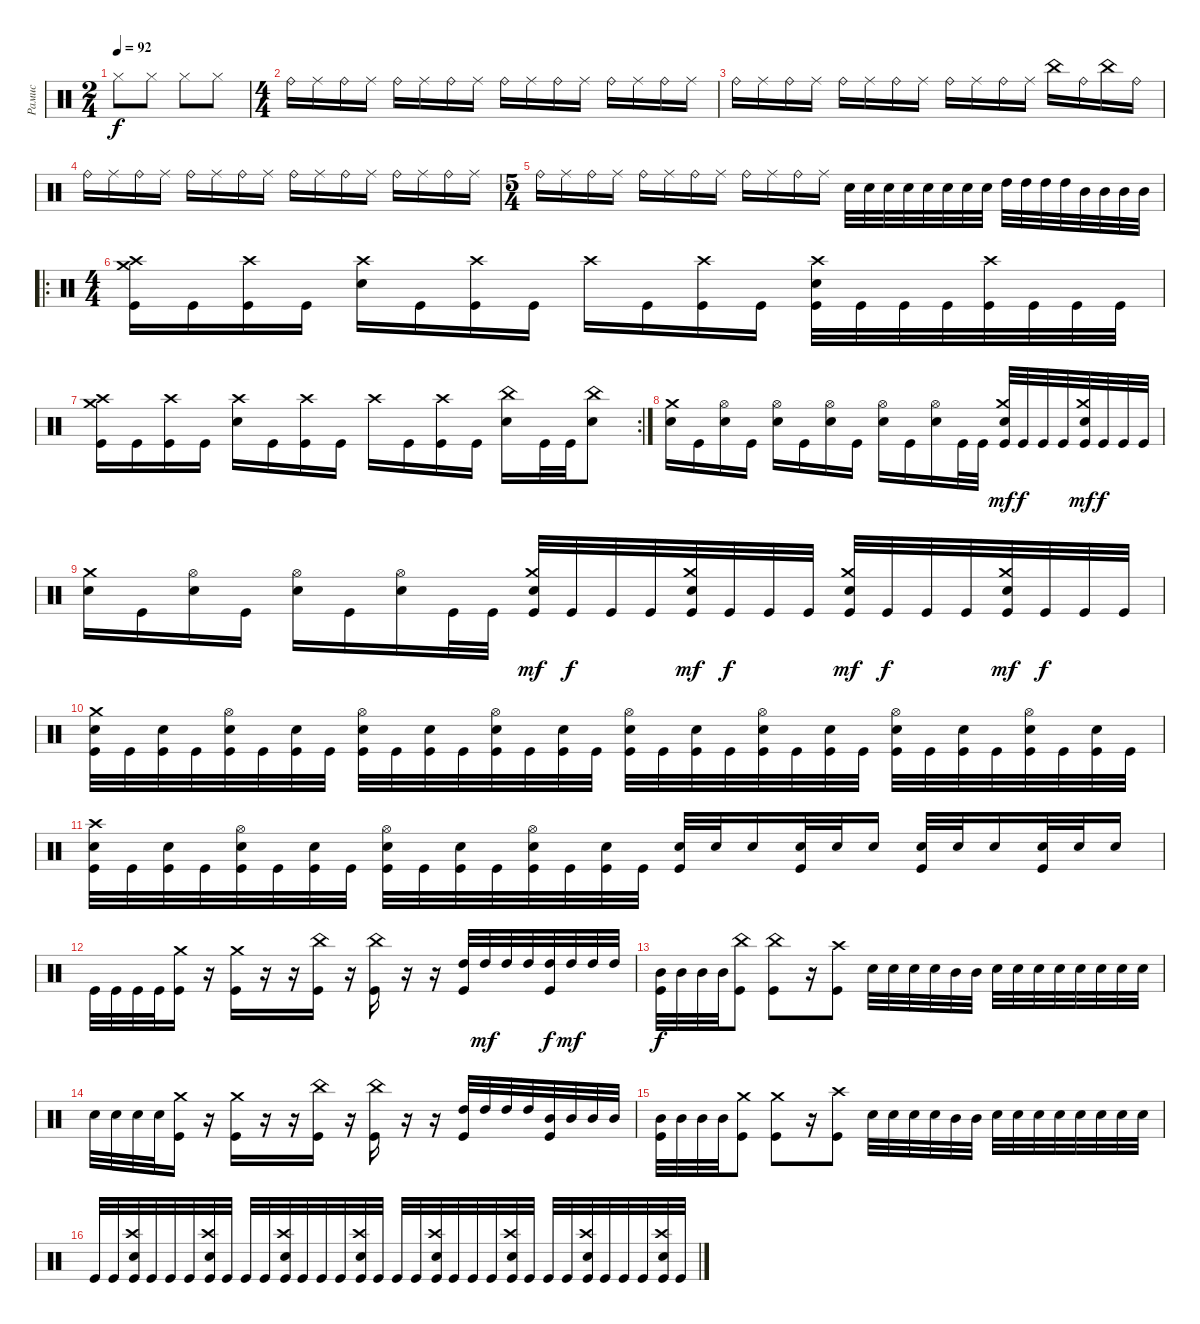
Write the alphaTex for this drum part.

\track ("Рамис" "Рамис") {instrument percussion}
\staff {score}
\articulation defaults
\ts (2 4)
\tempo 92
\clef neutral
\ks c "Hi-Hat (closed)".8{dy f} "Hi-Hat (closed)".8 "Hi-Hat (closed)".8 "Hi-Hat (closed)".8
|
\ts (4 4)
"Ride (bell)".16 "Ride (middle)".16 "Ride (bell)".16 "Ride (middle)".16 "Ride (bell)".16 "Ride (middle)".16 "Ride (bell)".16 "Ride (middle)".16 "Ride (bell)".16 "Ride (middle)".16 "Ride (bell)".16 "Ride (middle)".16 "Ride (bell)".16 "Ride (middle)".16 "Ride (bell)".16 "Ride (middle)".16 |
"Ride (bell)".16 "Ride (middle)".16 "Ride (bell)".16 "Ride (middle)".16 "Ride (bell)".16 "Ride (middle)".16 "Ride (bell)".16 "Ride (middle)".16 "Ride (bell)".16 "Ride (middle)".16 "Ride (bell)".16 "Ride (middle)".16 "China (hit)".16 "Ride (bell)".16 "China (hit)".16 "Ride (bell)".16 |
"Ride (bell)".16 "Ride (middle)".16 "Ride (bell)".16 "Ride (middle)".16 "Ride (bell)".16 "Ride (middle)".16 "Ride (bell)".16 "Ride (middle)".16 "Ride (bell)".16 "Ride (middle)".16 "Ride (bell)".16 "Ride (middle)".16 "Ride (bell)".16 "Ride (middle)".16 "Ride (bell)".16 "Ride (middle)".16 |
\ts (5 4)
"Ride (bell)".16 "Ride (middle)".16 "Ride (bell)".16 "Ride (middle)".16 "Ride (bell)".16 "Ride (middle)".16 "Ride (bell)".16 "Ride (middle)".16 "Ride (bell)".16 "Ride (middle)".16 "Ride (bell)".16 "Ride (middle)".16 "Electric Snare (hit)".32 "Electric Snare (hit)".32 "Electric Snare (hit)".32 "Electric Snare (hit)".32 "Electric Snare (hit)".32 "Electric Snare (hit)".32 "Electric Snare (hit)".32 "Electric Snare (hit)".32 "High Tom (hit)".32 "High Tom (hit)".32 "High Tom (hit)".32 "High Tom (hit)".32 "Mid Tom (hit)".32 "Mid Tom (hit)".32 "Mid Tom (hit)".32 "Mid Tom (hit)".32 |
\ro
\ts (4 4)
("Crash high (hit)" "Crash medium (hit)" "Kick (hit)").16 "Kick (hit)".16 ("Crash high (hit)" "Kick (hit)").16 "Kick (hit)".16 ("Crash high (hit)" "Electric Snare (hit)").16 "Kick (hit)".16 ("Crash high (hit)" "Kick (hit)").16 "Kick (hit)".16 "Crash high (hit)".16 "Kick (hit)".16 ("Crash high (hit)" "Kick (hit)").16 "Kick (hit)".16 ("Crash high (hit)" "Electric Snare (hit)" "Kick (hit)").32 "Kick (hit)".32 "Kick (hit)".32 "Kick (hit)".32 ("Crash high (hit)" "Kick (hit)").32 "Kick (hit)".32 "Kick (hit)".32 "Kick (hit)".32 |
\rc 2
("Crash medium (hit)" "Crash high (hit)" "Kick (hit)").16 "Kick (hit)".16 ("Crash high (hit)" "Kick (hit)").16 "Kick (hit)".16 ("Crash high (hit)" "Electric Snare (hit)").16 "Kick (hit)".16 ("Crash high (hit)" "Kick (hit)").16 "Kick (hit)".16 "Crash high (hit)".16 "Kick (hit)".16 ("Crash high (hit)" "Kick (hit)").16 "Kick (hit)".16 ("China (hit)" "Electric Snare (hit)").16 "Kick (hit)".32 "Kick (hit)".32 ("China (hit)" "Electric Snare (hit)").8 |
("Crash medium (hit)" "Electric Snare (hit)").16 "Kick (hit)".16 ("Hi-Hat (open)" "Electric Snare (hit)").16 "Kick (hit)".16 ("Hi-Hat (open)" "Electric Snare (hit)").16 "Kick (hit)".16 ("Hi-Hat (open)" "Electric Snare (hit)").16 "Kick (hit)".16 ("Hi-Hat (open)" "Electric Snare (hit)").16 "Kick (hit)".16 ("Hi-Hat (open)" "Electric Snare (hit)").16 "Kick (hit)".32 "Kick (hit)".32 ("Crash medium (hit)" "Electric Snare (hit)" "Kick (hit)").32{dy mf} "Kick (hit)".32{dy f} "Kick (hit)".32 "Kick (hit)".32 ("Crash medium (hit)" "Electric Snare (hit)" "Kick (hit)").32{dy mf} "Kick (hit)".32{dy f} "Kick (hit)".32 "Kick (hit)".32 |
("Crash medium (hit)" "Electric Snare (hit)").16 "Kick (hit)".16 ("Hi-Hat (open)" "Electric Snare (hit)").16 "Kick (hit)".16 ("Hi-Hat (open)" "Electric Snare (hit)").16 "Kick (hit)".16 ("Hi-Hat (open)" "Electric Snare (hit)").16 "Kick (hit)".32 "Kick (hit)".32 ("Crash medium (hit)" "Electric Snare (hit)" "Kick (hit)").32{dy mf} "Kick (hit)".32{dy f} "Kick (hit)".32 "Kick (hit)".32 ("Crash medium (hit)" "Electric Snare (hit)" "Kick (hit)").32{dy mf} "Kick (hit)".32{dy f} "Kick (hit)".32 "Kick (hit)".32 ("Crash medium (hit)" "Electric Snare (hit)" "Kick (hit)").32{dy mf} "Kick (hit)".32{dy f} "Kick (hit)".32 "Kick (hit)".32 ("Crash medium (hit)" "Electric Snare (hit)" "Kick (hit)").32{dy mf} "Kick (hit)".32{dy f} "Kick (hit)".32 "Kick (hit)".32 |
("Crash medium (hit)" "Electric Snare (hit)" "Kick (hit)").32 "Kick (hit)".32 ("Electric Snare (hit)" "Kick (hit)").32 "Kick (hit)".32 ("Hi-Hat (open)" "Electric Snare (hit)" "Kick (hit)").32 "Kick (hit)".32 ("Electric Snare (hit)" "Kick (hit)").32 "Kick (hit)".32 ("Hi-Hat (open)" "Electric Snare (hit)" "Kick (hit)").32 "Kick (hit)".32 ("Electric Snare (hit)" "Kick (hit)").32 "Kick (hit)".32 ("Hi-Hat (open)" "Electric Snare (hit)" "Kick (hit)").32 "Kick (hit)".32 ("Electric Snare (hit)" "Kick (hit)").32 "Kick (hit)".32 ("Hi-Hat (open)" "Electric Snare (hit)" "Kick (hit)").32 "Kick (hit)".32 ("Electric Snare (hit)" "Kick (hit)").32 "Kick (hit)".32 ("Hi-Hat (open)" "Electric Snare (hit)" "Kick (hit)").32 "Kick (hit)".32 ("Electric Snare (hit)" "Kick (hit)").32 "Kick (hit)".32 ("Hi-Hat (open)" "Electric Snare (hit)" "Kick (hit)").32 "Kick (hit)".32 ("Electric Snare (hit)" "Kick (hit)").32 "Kick (hit)".32 ("Hi-Hat (open)" "Electric Snare (hit)" "Kick (hit)").32 "Kick (hit)".32 ("Electric Snare (hit)" "Kick (hit)").32 "Kick (hit)".32 |
("Crash high (hit)" "Electric Snare (hit)" "Kick (hit)").32 "Kick (hit)".32 ("Electric Snare (hit)" "Kick (hit)").32 "Kick (hit)".32 ("Hi-Hat (open)" "Electric Snare (hit)" "Kick (hit)").32 "Kick (hit)".32 ("Electric Snare (hit)" "Kick (hit)").32 "Kick (hit)".32 ("Hi-Hat (open)" "Electric Snare (hit)" "Kick (hit)").32 "Kick (hit)".32 ("Electric Snare (hit)" "Kick (hit)").32 "Kick (hit)".32 ("Hi-Hat (open)" "Electric Snare (hit)" "Kick (hit)").32 "Kick (hit)".32 ("Electric Snare (hit)" "Kick (hit)").32 "Kick (hit)".32 ("Kick (hit)" "Electric Snare (hit)").32 "Electric Snare (hit)".32 "Electric Snare (hit)".16 ("Kick (hit)" "Electric Snare (hit)").32 "Electric Snare (hit)".32 "Electric Snare (hit)".16 ("Kick (hit)" "Electric Snare (hit)").32 "Electric Snare (hit)".32 "Electric Snare (hit)".16 ("Kick (hit)" "Electric Snare (hit)").32 "Electric Snare (hit)".32 "Electric Snare (hit)".16 |
"Kick (hit)".32 "Kick (hit)".32 "Kick (hit)".32 "Kick (hit)".32 ("Crash medium (hit)" "Kick (hit)").16 r.16 ("Crash medium (hit)" "Kick (hit)").16 r.16 r.16 ("China (hit)" "Kick (hit)").16 r.16 ("China (hit)" "Kick (hit)").16 r.16 r.16 ("Kick (hit)" "High Tom (hit)").32 "High Tom (hit)".32{dy mf} "High Tom (hit)".32 "High Tom (hit)".32 ("Kick (hit)" "High Tom (hit)").32{dy f} "High Tom (hit)".32{dy mf} "High Tom (hit)".32 "High Tom (hit)".32 |
("Mid Tom (hit)" "Kick (hit)").32{dy f} "Mid Tom (hit)".32 "Mid Tom (hit)".32 "Mid Tom (hit)".32 ("China (hit)" "Kick (hit)").8 ("China (hit)" "Kick (hit)").8 r.16 ("Crash high (hit)" "Kick (hit)").8 "Electric Snare (hit)".32 "Electric Snare (hit)".32 "Electric Snare (hit)".32 "Electric Snare (hit)".32 "Mid Tom (hit)".32 "Mid Tom (hit)".32 "Electric Snare (hit)".32 "Electric Snare (hit)".32 "Electric Snare (hit)".32 "Electric Snare (hit)".32 "Electric Snare (hit)".32 "Electric Snare (hit)".32 "Electric Snare (hit)".32 "Electric Snare (hit)".32 |
"Electric Snare (hit)".32 "Electric Snare (hit)".32 "Electric Snare (hit)".32 "Electric Snare (hit)".32 ("Crash medium (hit)" "Kick (hit)").16 r.16 ("Crash medium (hit)" "Kick (hit)").16 r.16 r.16 ("China (hit)" "Kick (hit)").16 r.16 ("China (hit)" "Kick (hit)").16 r.16 r.16 ("Kick (hit)" "High Tom (hit)").32 "High Tom (hit)".32 "High Tom (hit)".32 "High Tom (hit)".32 ("Kick (hit)" "Mid Tom (hit)").32 "Mid Tom (hit)".32 "Mid Tom (hit)".32 "Mid Tom (hit)".32 |
("Mid Tom (hit)" "Kick (hit)").32 "Mid Tom (hit)".32 "Mid Tom (hit)".32 "Mid Tom (hit)".32 ("Crash medium (hit)" "Kick (hit)").8 ("Crash medium (hit)" "Kick (hit)").8 r.16 ("Crash high (hit)" "Kick (hit)").8 "Electric Snare (hit)".32 "Electric Snare (hit)".32 "Electric Snare (hit)".32 "Electric Snare (hit)".32 "Mid Tom (hit)".32 "Mid Tom (hit)".32 "Electric Snare (hit)".32 "Electric Snare (hit)".32 "Electric Snare (hit)".32 "Electric Snare (hit)".32 "Electric Snare (hit)".32 "Electric Snare (hit)".32 "Electric Snare (hit)".32 "Electric Snare (hit)".32 |
"Kick (hit)".32 "Kick (hit)".32 ("Crash high (hit)" "Electric Snare (hit)" "Kick (hit)").32 "Kick (hit)".32 "Kick (hit)".32 "Kick (hit)".32 ("Crash high (hit)" "Electric Snare (hit)" "Kick (hit)").32 "Kick (hit)".32 "Kick (hit)".32 "Kick (hit)".32 ("Crash high (hit)" "Electric Snare (hit)" "Kick (hit)").32 "Kick (hit)".32 "Kick (hit)".32 "Kick (hit)".32 ("Crash high (hit)" "Electric Snare (hit)" "Kick (hit)").32 "Kick (hit)".32 "Kick (hit)".32 "Kick (hit)".32 ("Crash high (hit)" "Electric Snare (hit)" "Kick (hit)").32 "Kick (hit)".32 "Kick (hit)".32 "Kick (hit)".32 ("Crash high (hit)" "Electric Snare (hit)" "Kick (hit)").32 "Kick (hit)".32 "Kick (hit)".32 "Kick (hit)".32 ("Crash high (hit)" "Electric Snare (hit)" "Kick (hit)").32 "Kick (hit)".32 "Kick (hit)".32 "Kick (hit)".32 ("Crash high (hit)" "Electric Snare (hit)" "Kick (hit)").32 "Kick (hit)".32
